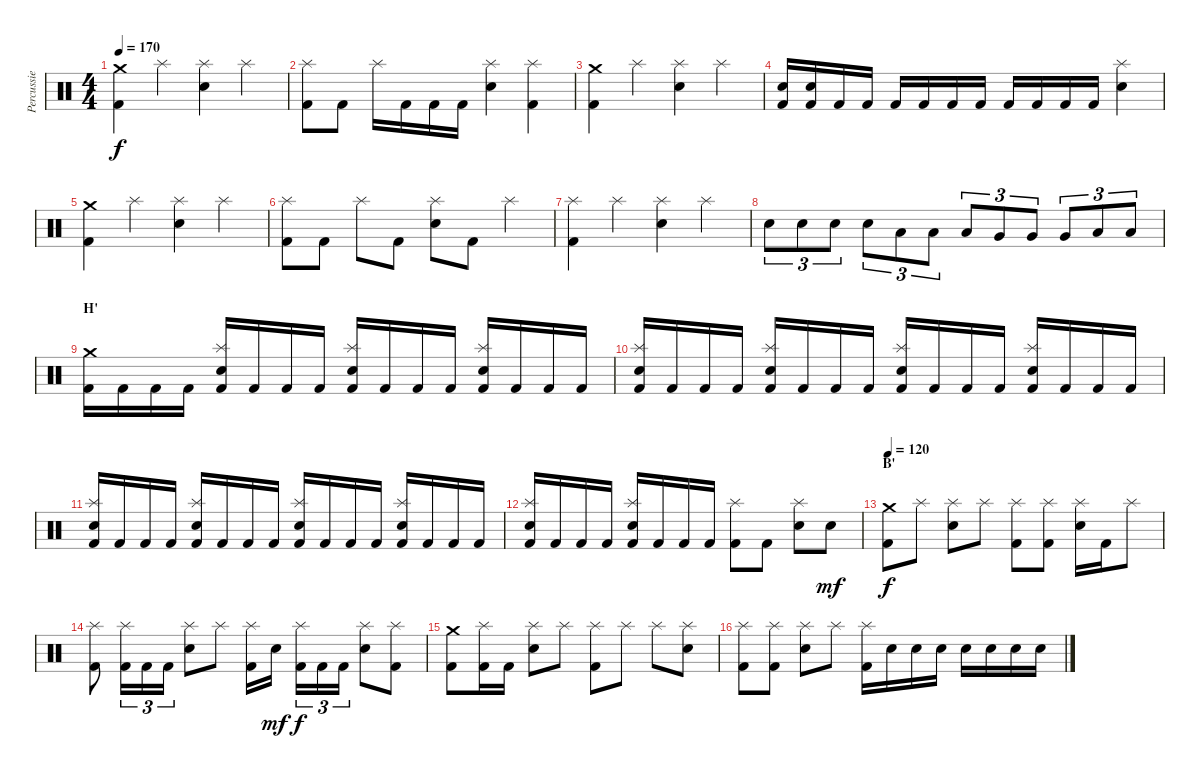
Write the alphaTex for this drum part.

\track ("Percussie" "Percussie") {instrument percussion}
\staff {score}
\articulation defaults
\ts (4 4)
\tempo 170
\clef neutral
\ks c
("Crash medium (hit)" "Kick (hit) 2").4{dy f} "Splash (hit)".4 ("Splash (hit)" "Electric Snare (hit)").4 "Splash (hit)".4 |
("Splash (hit)" "Kick (hit) 2").8 "Kick (hit) 2".8 "Splash (hit)".16 "Kick (hit) 2".16 "Kick (hit) 2".16 "Kick (hit) 2".16 ("Splash (hit)" "Electric Snare (hit)").4 ("Splash (hit)" "Kick (hit) 2").4 |
("Crash medium (hit)" "Kick (hit) 2").4 "Splash (hit)".4 ("Splash (hit)" "Electric Snare (hit)").4 "Splash (hit)".4 |
("Electric Snare (hit)" "Kick (hit) 2").16 ("Electric Snare (hit)" "Kick (hit) 2").16 "Kick (hit) 2".16 "Kick (hit) 2".16 "Kick (hit) 2".16 "Kick (hit) 2".16 "Kick (hit) 2".16 "Kick (hit) 2".16 "Kick (hit) 2".16 "Kick (hit) 2".16 "Kick (hit) 2".16 "Kick (hit) 2".16 ("Splash (hit)" "Electric Snare (hit)").4 |
("Crash medium (hit)" "Kick (hit) 2").4 "Splash (hit)".4 ("Splash (hit)" "Electric Snare (hit)").4 "Splash (hit)".4 |
("Splash (hit)" "Kick (hit) 2").8 "Kick (hit) 2".8 "Splash (hit)".8 "Kick (hit) 2".8 ("Splash (hit)" "Electric Snare (hit)").8 "Kick (hit) 2".8 "Splash (hit)".4 |
("Splash (hit)" "Kick (hit) 2").4 "Splash (hit)".4 ("Splash (hit)" "Electric Snare (hit)").4 "Splash (hit)".4 |
"Electric Snare (hit)".8{tu (3 2)} "Electric Snare (hit)".8{tu (3 2)} "Electric Snare (hit)".8{tu (3 2)} "Electric Snare (hit)".8{tu (3 2)} "Low Tom (hit)".8{tu (3 2)} "Low Tom (hit)".8{tu (3 2)} "Low Tom (hit)".8{tu (3 2)} "Very Low Tom (hit)".8{tu (3 2)} "Very Low Tom (hit)".8{tu (3 2)} "Very Low Tom (hit)".8{tu (3 2)} "Low Floor Tom (hit)".8{tu (3 2)} "Low Floor Tom (hit)".8{tu (3 2)} |
\section ("" "H'")
("Crash medium (hit)" "Kick (hit) 2").16 "Kick (hit) 2".16 "Kick (hit) 2".16 "Kick (hit) 2".16 ("Splash (hit)" "Electric Snare (hit)" "Kick (hit) 2").16 "Kick (hit) 2".16 "Kick (hit) 2".16 "Kick (hit) 2".16 ("Splash (hit)" "Electric Snare (hit)" "Kick (hit) 2").16 "Kick (hit) 2".16 "Kick (hit) 2".16 "Kick (hit) 2".16 ("Splash (hit)" "Electric Snare (hit)" "Kick (hit) 2").16 "Kick (hit) 2".16 "Kick (hit) 2".16 "Kick (hit) 2".16 |
("Splash (hit)" "Electric Snare (hit)" "Kick (hit) 2").16 "Kick (hit) 2".16 "Kick (hit) 2".16 "Kick (hit) 2".16 ("Splash (hit)" "Electric Snare (hit)" "Kick (hit) 2").16 "Kick (hit) 2".16 "Kick (hit) 2".16 "Kick (hit) 2".16 ("Splash (hit)" "Electric Snare (hit)" "Kick (hit) 2").16 "Kick (hit) 2".16 "Kick (hit) 2".16 "Kick (hit) 2".16 ("Splash (hit)" "Electric Snare (hit)" "Kick (hit) 2").16 "Kick (hit) 2".16 "Kick (hit) 2".16 "Kick (hit) 2".16 |
("Splash (hit)" "Electric Snare (hit)" "Kick (hit) 2").16 "Kick (hit) 2".16 "Kick (hit) 2".16 "Kick (hit) 2".16 ("Splash (hit)" "Electric Snare (hit)" "Kick (hit) 2").16 "Kick (hit) 2".16 "Kick (hit) 2".16 "Kick (hit) 2".16 ("Splash (hit)" "Electric Snare (hit)" "Kick (hit) 2").16 "Kick (hit) 2".16 "Kick (hit) 2".16 "Kick (hit) 2".16 ("Splash (hit)" "Electric Snare (hit)" "Kick (hit) 2").16 "Kick (hit) 2".16 "Kick (hit) 2".16 "Kick (hit) 2".16 |
("Splash (hit)" "Electric Snare (hit)" "Kick (hit) 2").16 "Kick (hit) 2".16 "Kick (hit) 2".16 "Kick (hit) 2".16 ("Splash (hit)" "Electric Snare (hit)" "Kick (hit) 2").16 "Kick (hit) 2".16 "Kick (hit) 2".16 "Kick (hit) 2".16 ("Splash (hit)" "Kick (hit) 2").8 "Kick (hit) 2".8 ("Splash (hit)" "Electric Snare (hit)").8 "Electric Snare (hit)".8{dy mf} |
\section ("" "B'")
\tempo 120
("Crash medium (hit)" "Kick (hit) 2").8{dy f} "Splash (hit)".8 ("Splash (hit)" "Electric Snare (hit)").8 "Splash (hit)".8 ("Splash (hit)" "Kick (hit) 2").8 ("Splash (hit)" "Kick (hit) 2").8 ("Splash (hit)" "Electric Snare (hit)").16 "Kick (hit) 2".16 "Splash (hit)".8 |
("Splash (hit)" "Kick (hit) 2").8 ("Splash (hit)" "Kick (hit) 2").16{tu (3 2)} "Kick (hit) 2".16{tu (3 2)} "Kick (hit) 2".16{tu (3 2)} ("Splash (hit)" "Electric Snare (hit)").8 "Splash (hit)".8 ("Splash (hit)" "Kick (hit) 2").16 "Electric Snare (hit)".16{dy mf} ("Splash (hit)" "Kick (hit) 2").16{tu (3 2) dy f} "Kick (hit) 2".16{tu (3 2)} "Kick (hit) 2".16{tu (3 2)} ("Splash (hit)" "Electric Snare (hit)").8 ("Splash (hit)" "Kick (hit) 2").8 |
("Crash medium (hit)" "Kick (hit) 2").8 ("Splash (hit)" "Kick (hit) 2").16 "Kick (hit) 2".16 ("Splash (hit)" "Electric Snare (hit)").8 "Splash (hit)".8 ("Splash (hit)" "Kick (hit) 2").8 "Splash (hit)".8 "Splash (hit)".8 ("Splash (hit)" "Electric Snare (hit)").8 |
("Splash (hit)" "Kick (hit) 2").8 ("Splash (hit)" "Kick (hit) 2").8 ("Splash (hit)" "Electric Snare (hit)").8 "Splash (hit)".8 ("Splash (hit)" "Kick (hit) 2").16 "Electric Snare (hit)".16 "Electric Snare (hit)".16 "Electric Snare (hit)".16 "Electric Snare (hit)".16 "Electric Snare (hit)".16 "Electric Snare (hit)".16 "Electric Snare (hit)".16
